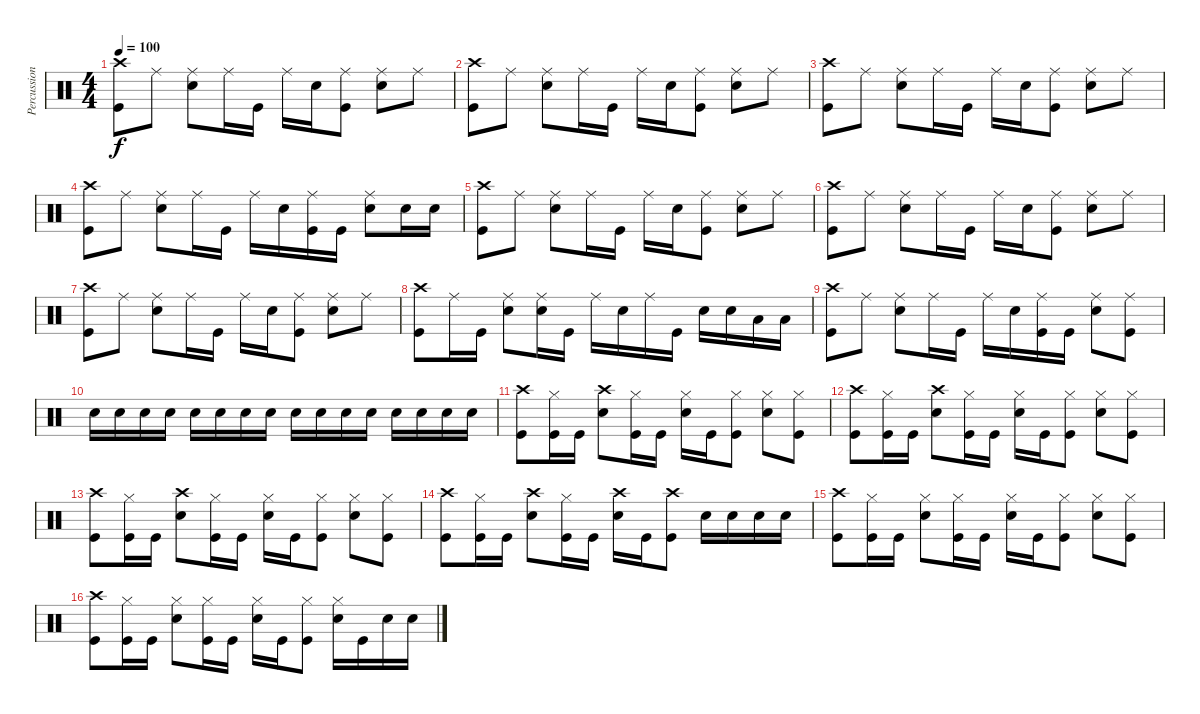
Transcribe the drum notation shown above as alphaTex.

\track ("Percussions" "Percussion") {instrument percussion}
\staff {score}
\articulation defaults
\ts (4 4)
\tempo 100
\clef neutral
\ks c
("Crash high (hit)" "Kick (hit)").8{dy f} "Ride (middle)".8 ("Snare (hit) 2" "Ride (middle)").8 "Ride (middle)".16 "Kick (hit)".16 "Ride (middle)".16 "Snare (hit) 2".16 ("Kick (hit)" "Ride (middle)").8 ("Snare (hit) 2" "Ride (middle)").8 "Ride (middle)".8 |
("Crash high (hit)" "Kick (hit)").8 "Ride (middle)".8 ("Snare (hit) 2" "Ride (middle)").8 "Ride (middle)".16 "Kick (hit)".16 "Ride (middle)".16 "Snare (hit) 2".16 ("Kick (hit)" "Ride (middle)").8 ("Snare (hit) 2" "Ride (middle)").8 "Ride (middle)".8 |
("Crash high (hit)" "Kick (hit)").8 "Ride (middle)".8 ("Snare (hit) 2" "Ride (middle)").8 "Ride (middle)".16 "Kick (hit)".16 "Ride (middle)".16 "Snare (hit) 2".16 ("Kick (hit)" "Ride (middle)").8 ("Snare (hit) 2" "Ride (middle)").8 "Ride (middle)".8 |
("Crash high (hit)" "Kick (hit)").8 "Ride (middle)".8 ("Snare (hit) 2" "Ride (middle)").8 "Ride (middle)".16 "Kick (hit)".16 "Ride (middle)".16 "Snare (hit) 2".16 ("Kick (hit)" "Ride (middle)").16 "Kick (hit)".16 ("Ride (middle)" "Snare (hit) 2").8 "Snare (hit) 2".16 "Snare (hit) 2".16 |
("Crash high (hit)" "Kick (hit)").8 "Ride (middle)".8 ("Snare (hit) 2" "Ride (middle)").8 "Ride (middle)".16 "Kick (hit)".16 "Ride (middle)".16 "Snare (hit) 2".16 ("Kick (hit)" "Ride (middle)").8 ("Snare (hit) 2" "Ride (middle)").8 "Ride (middle)".8 |
("Crash high (hit)" "Kick (hit)").8 "Ride (middle)".8 ("Snare (hit) 2" "Ride (middle)").8 "Ride (middle)".16 "Kick (hit)".16 "Ride (middle)".16 "Snare (hit) 2".16 ("Kick (hit)" "Ride (middle)").8 ("Snare (hit) 2" "Ride (middle)").8 "Ride (middle)".8 |
("Crash high (hit)" "Kick (hit)").8 "Ride (middle)".8 ("Snare (hit) 2" "Ride (middle)").8 "Ride (middle)".16 "Kick (hit)".16 "Ride (middle)".16 "Snare (hit) 2".16 ("Kick (hit)" "Ride (middle)").8 ("Snare (hit) 2" "Ride (middle)").8 "Ride (middle)".8 |
("Crash high (hit)" "Kick (hit)").8 "Ride (middle)".16 "Kick (hit)".16 ("Ride (middle)" "Snare (hit) 2").8 ("Ride (middle)" "Snare (hit) 2").16 "Kick (hit)".16 "Ride (middle)".16 "Snare (hit) 2".16 "Ride (middle)".16 "Kick (hit)".16 "Snare (hit) 2".16 "Snare (hit) 2".16 "Low Tom (hit)".16 "Low Tom (hit)".16 |
("Crash high (hit)" "Kick (hit)").8 "Ride (middle)".8 ("Ride (middle)" "Snare (hit) 2").8 "Ride (middle)".16 "Kick (hit)".16 "Ride (middle)".16 "Snare (hit) 2".16 ("Kick (hit)" "Ride (middle)").16 "Kick (hit)".16 ("Snare (hit) 2" "Ride (middle)").8 ("Kick (hit)" "Ride (middle)").8 |
"Snare (hit) 2".16 "Snare (hit) 2".16 "Snare (hit) 2".16 "Snare (hit) 2".16 "Snare (hit) 2".16 "Snare (hit) 2".16 "Snare (hit) 2".16 "Snare (hit) 2".16 "Snare (hit) 2".16 "Snare (hit) 2".16 "Snare (hit) 2".16 "Snare (hit) 2".16 "Snare (hit) 2".16 "Snare (hit) 2".16 "Snare (hit) 2".16 "Snare (hit) 2".16 |
("Crash high (hit)" "Kick (hit)").8 ("Hi-Hat (closed)" "Kick (hit)").16 "Kick (hit)".16 ("Crash high (hit)" "Snare (hit) 2").8 ("Hi-Hat (closed)" "Kick (hit)").16 "Kick (hit)".16 ("Hi-Hat (closed)" "Snare (hit) 2").16 "Kick (hit)".16 ("Kick (hit)" "Hi-Hat (closed)").8 ("Hi-Hat (closed)" "Snare (hit) 2").8 ("Kick (hit)" "Hi-Hat (closed)").8 |
("Crash high (hit)" "Kick (hit)").8 ("Hi-Hat (closed)" "Kick (hit)").16 "Kick (hit)".16 ("Crash high (hit)" "Snare (hit) 2").8 ("Hi-Hat (closed)" "Kick (hit)").16 "Kick (hit)".16 ("Hi-Hat (closed)" "Snare (hit) 2").16 "Kick (hit)".16 ("Kick (hit)" "Hi-Hat (closed)").8 ("Hi-Hat (closed)" "Snare (hit) 2").8 ("Kick (hit)" "Hi-Hat (closed)").8 |
("Crash high (hit)" "Kick (hit)").8 ("Hi-Hat (closed)" "Kick (hit)").16 "Kick (hit)".16 ("Crash high (hit)" "Snare (hit) 2").8 ("Hi-Hat (closed)" "Kick (hit)").16 "Kick (hit)".16 ("Hi-Hat (closed)" "Snare (hit) 2").16 "Kick (hit)".16 ("Kick (hit)" "Hi-Hat (closed)").8 ("Hi-Hat (closed)" "Snare (hit) 2").8 ("Kick (hit)" "Hi-Hat (closed)").8 |
("Crash high (hit)" "Kick (hit)").8 ("Hi-Hat (closed)" "Kick (hit)").16 "Kick (hit)".16 ("Crash high (hit)" "Snare (hit) 2").8 ("Hi-Hat (closed)" "Kick (hit)").16 "Kick (hit)".16 ("Crash high (hit)" "Snare (hit) 2").16 "Kick (hit)".16 ("Kick (hit)" "Crash high (hit)").8 "Snare (hit) 2".16 "Snare (hit) 2".16 "Snare (hit) 2".16 "Snare (hit) 2".16 |
("Crash high (hit)" "Kick (hit)").8 ("Hi-Hat (closed)" "Kick (hit)").16 "Kick (hit)".16 ("Hi-Hat (closed)" "Snare (hit) 2").8 ("Hi-Hat (closed)" "Kick (hit)").16 "Kick (hit)".16 ("Hi-Hat (closed)" "Snare (hit) 2").16 "Kick (hit)".16 ("Kick (hit)" "Hi-Hat (closed)").8 ("Hi-Hat (closed)" "Snare (hit) 2").8 ("Kick (hit)" "Hi-Hat (closed)").8 |
("Crash high (hit)" "Kick (hit)").8 ("Hi-Hat (closed)" "Kick (hit)").16 "Kick (hit)".16 ("Hi-Hat (closed)" "Snare (hit) 2").8 ("Hi-Hat (closed)" "Kick (hit)").16 "Kick (hit)".16 ("Hi-Hat (closed)" "Snare (hit) 2").16 "Kick (hit)".16 ("Kick (hit)" "Hi-Hat (closed)").8 ("Hi-Hat (closed)" "Snare (hit) 2").16 "Kick (hit)".16 "Snare (hit) 2".16 "Snare (hit) 2".16
